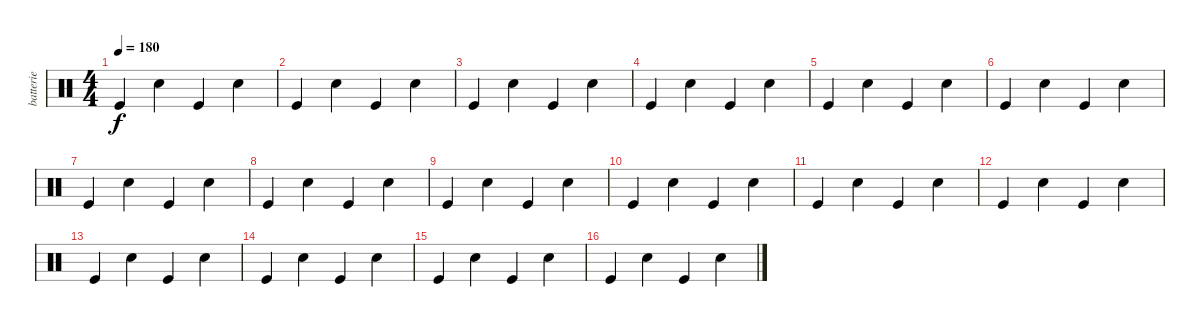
\track ("batterie" "batterie") {instrument percussion}
\staff {score}
\articulation defaults
\ts (4 4)
\tempo 180
\clef neutral
\ks c "Kick (hit)".4{dy f} "Snare (hit) 2".4 "Kick (hit)".4 "Snare (hit) 2".4
|
"Kick (hit)".4 "Snare (hit) 2".4 "Kick (hit)".4 "Snare (hit) 2".4 |
"Kick (hit)".4 "Snare (hit) 2".4 "Kick (hit)".4 "Snare (hit) 2".4 |
"Kick (hit)".4 "Snare (hit) 2".4 "Kick (hit)".4 "Snare (hit) 2".4 |
"Kick (hit)".4 "Snare (hit) 2".4 "Kick (hit)".4 "Snare (hit) 2".4 |
"Kick (hit)".4 "Snare (hit) 2".4 "Kick (hit)".4 "Snare (hit) 2".4 |
"Kick (hit)".4 "Snare (hit) 2".4 "Kick (hit)".4 "Snare (hit) 2".4 |
"Kick (hit)".4 "Snare (hit) 2".4 "Kick (hit)".4 "Snare (hit) 2".4 |
"Kick (hit)".4 "Snare (hit) 2".4 "Kick (hit)".4 "Snare (hit) 2".4 |
"Kick (hit)".4 "Snare (hit) 2".4 "Kick (hit)".4 "Snare (hit) 2".4 |
"Kick (hit)".4 "Snare (hit) 2".4 "Kick (hit)".4 "Snare (hit) 2".4 |
"Kick (hit)".4 "Snare (hit) 2".4 "Kick (hit)".4 "Snare (hit) 2".4 |
"Kick (hit)".4 "Snare (hit) 2".4 "Kick (hit)".4 "Snare (hit) 2".4 |
"Kick (hit)".4 "Snare (hit) 2".4 "Kick (hit)".4 "Snare (hit) 2".4 |
"Kick (hit)".4 "Snare (hit) 2".4 "Kick (hit)".4 "Snare (hit) 2".4 |
"Kick (hit)".4 "Snare (hit) 2".4 "Kick (hit)".4 "Snare (hit) 2".4
